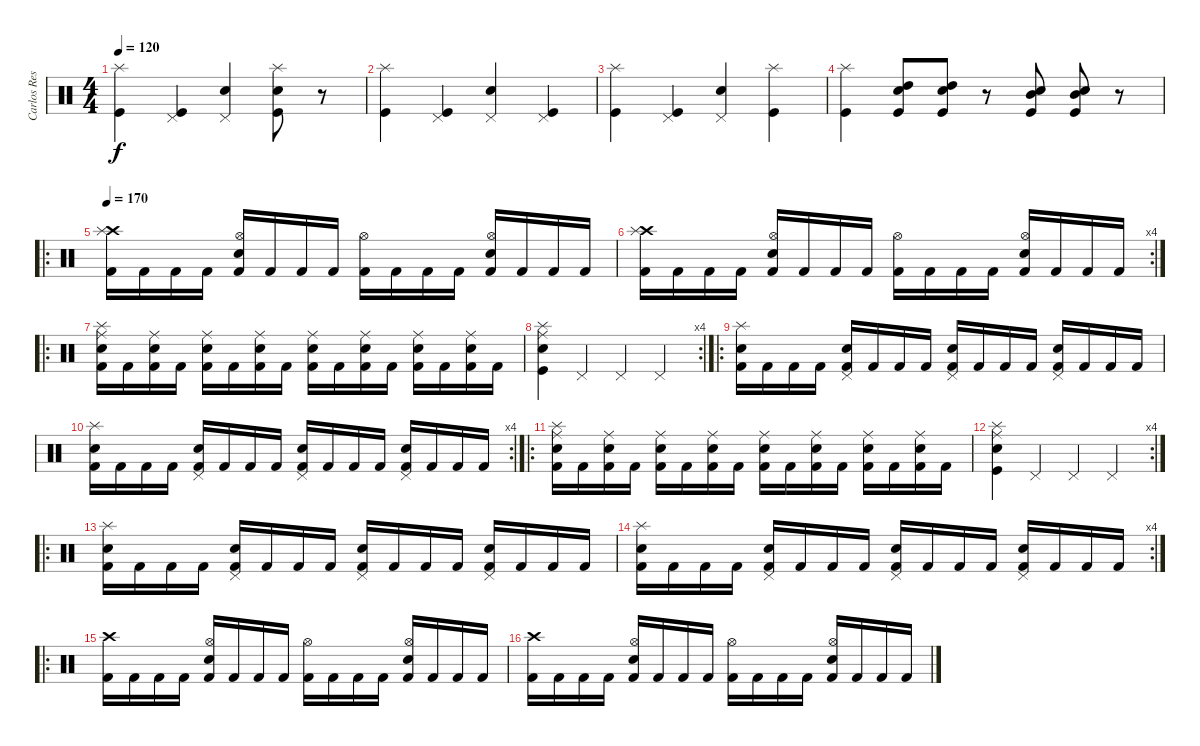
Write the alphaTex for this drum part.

\track ("Carlos Restrepo" "Carlos Res") {instrument percussion}
\staff {score}
\articulation defaults
\ts (4 4)
\tempo 120
\clef neutral
\ks c
("Splash (hit)" "Kick (hit)").4{dy f} ("Pedal Hi-Hat (hit)" "Kick (hit)").4 ("Pedal Hi-Hat (hit)" "Snare (hit) 2").4 ("Splash (hit)" "Kick (hit)" "Snare (hit) 2").8 r.8 |
("Splash (hit)" "Kick (hit)").4 ("Pedal Hi-Hat (hit)" "Kick (hit)").4 ("Pedal Hi-Hat (hit)" "Snare (hit) 2").4 ("Pedal Hi-Hat (hit)" "Kick (hit)").4 |
("Splash (hit)" "Kick (hit)").4 ("Pedal Hi-Hat (hit)" "Kick (hit)").4 ("Pedal Hi-Hat (hit)" "Snare (hit) 2").4 ("Splash (hit)" "Kick (hit)").4 |
("Splash (hit)" "Kick (hit)").4 ("Kick (hit)" "Snare (hit) 2" "High Tom (hit)").8 ("Kick (hit)" "Snare (hit) 2" "High Tom (hit)").8 r.8 ("Kick (hit)" "Snare (hit) 2" "Mid Tom (hit)").8 ("Kick (hit)" "Snare (hit) 2" "Mid Tom (hit)").8 r.8 |
\ro
\tempo 170
("Crash high (hit)" "Splash (hit)" "Kick (hit) 2").16 "Kick (hit) 2".16 "Kick (hit) 2".16 "Kick (hit) 2".16 ("Hi-Hat (open)" "Electric Snare (hit)" "Kick (hit) 2").16 "Kick (hit) 2".16 "Kick (hit) 2".16 "Kick (hit) 2".16 ("Hi-Hat (open)" "Kick (hit) 2").16 "Kick (hit) 2".16 "Kick (hit) 2".16 "Kick (hit) 2".16 ("Hi-Hat (open)" "Electric Snare (hit)" "Kick (hit) 2").16 "Kick (hit) 2".16 "Kick (hit) 2".16 "Kick (hit) 2".16 |
\rc 4
("Crash high (hit)" "Splash (hit)" "Kick (hit) 2").16 "Kick (hit) 2".16 "Kick (hit) 2".16 "Kick (hit) 2".16 ("Hi-Hat (open)" "Electric Snare (hit)" "Kick (hit) 2").16 "Kick (hit) 2".16 "Kick (hit) 2".16 "Kick (hit) 2".16 ("Hi-Hat (open)" "Kick (hit) 2").16 "Kick (hit) 2".16 "Kick (hit) 2".16 "Kick (hit) 2".16 ("Hi-Hat (open)" "Electric Snare (hit)" "Kick (hit) 2").16 "Kick (hit) 2".16 "Kick (hit) 2".16 "Kick (hit) 2".16 |
\ro
("Kick (hit) 2" "Snare (hit) 2" "Ride (middle)" "Splash (hit)").16 "Kick (hit) 2".16 ("Kick (hit) 2" "Snare (hit) 2" "Ride (middle)").16 "Kick (hit) 2".16 ("Kick (hit) 2" "Snare (hit) 2" "Ride (middle)").16 "Kick (hit) 2".16 ("Kick (hit) 2" "Snare (hit) 2" "Ride (middle)").16 "Kick (hit) 2".16 ("Kick (hit) 2" "Snare (hit) 2" "Ride (middle)").16 "Kick (hit) 2".16 ("Kick (hit) 2" "Snare (hit) 2" "Ride (middle)").16 "Kick (hit) 2".16 ("Kick (hit) 2" "Snare (hit) 2" "Ride (middle)").16 "Kick (hit) 2".16 ("Kick (hit) 2" "Snare (hit) 2" "Ride (middle)").16 "Kick (hit) 2".16 |
\rc 4
("Kick (hit)" "Snare (hit) 2" "Ride (middle)" "Splash (hit)").4 "Pedal Hi-Hat (hit)".4 "Pedal Hi-Hat (hit)".4 "Pedal Hi-Hat (hit)".4 |
\ro
("Splash (hit)" "Snare (hit) 2" "Kick (hit) 2").16 "Kick (hit) 2".16 "Kick (hit) 2".16 "Kick (hit) 2".16 ("Pedal Hi-Hat (hit)" "Snare (hit) 2" "Kick (hit) 2").16 "Kick (hit) 2".16 "Kick (hit) 2".16 "Kick (hit) 2".16 ("Pedal Hi-Hat (hit)" "Snare (hit) 2" "Kick (hit) 2").16 "Kick (hit) 2".16 "Kick (hit) 2".16 "Kick (hit) 2".16 ("Pedal Hi-Hat (hit)" "Snare (hit) 2" "Kick (hit) 2").16 "Kick (hit) 2".16 "Kick (hit) 2".16 "Kick (hit) 2".16 |
\rc 4
("Splash (hit)" "Snare (hit) 2" "Kick (hit) 2").16 "Kick (hit) 2".16 "Kick (hit) 2".16 "Kick (hit) 2".16 ("Pedal Hi-Hat (hit)" "Snare (hit) 2" "Kick (hit) 2").16 "Kick (hit) 2".16 "Kick (hit) 2".16 "Kick (hit) 2".16 ("Pedal Hi-Hat (hit)" "Snare (hit) 2" "Kick (hit) 2").16 "Kick (hit) 2".16 "Kick (hit) 2".16 "Kick (hit) 2".16 ("Pedal Hi-Hat (hit)" "Snare (hit) 2" "Kick (hit) 2").16 "Kick (hit) 2".16 "Kick (hit) 2".16 "Kick (hit) 2".16 |
\ro
("Kick (hit) 2" "Snare (hit) 2" "Ride (middle)" "Splash (hit)").16 "Kick (hit) 2".16 ("Kick (hit) 2" "Snare (hit) 2" "Ride (middle)").16 "Kick (hit) 2".16 ("Kick (hit) 2" "Snare (hit) 2" "Ride (middle)").16 "Kick (hit) 2".16 ("Kick (hit) 2" "Snare (hit) 2" "Ride (middle)").16 "Kick (hit) 2".16 ("Kick (hit) 2" "Snare (hit) 2" "Ride (middle)").16 "Kick (hit) 2".16 ("Kick (hit) 2" "Snare (hit) 2" "Ride (middle)").16 "Kick (hit) 2".16 ("Kick (hit) 2" "Snare (hit) 2" "Ride (middle)").16 "Kick (hit) 2".16 ("Kick (hit) 2" "Snare (hit) 2" "Ride (middle)").16 "Kick (hit) 2".16 |
\rc 4
("Kick (hit)" "Snare (hit) 2" "Ride (middle)" "Splash (hit)").4 "Pedal Hi-Hat (hit)".4 "Pedal Hi-Hat (hit)".4 "Pedal Hi-Hat (hit)".4 |
\ro
("Splash (hit)" "Snare (hit) 2" "Kick (hit) 2").16 "Kick (hit) 2".16 "Kick (hit) 2".16 "Kick (hit) 2".16 ("Pedal Hi-Hat (hit)" "Snare (hit) 2" "Kick (hit) 2").16 "Kick (hit) 2".16 "Kick (hit) 2".16 "Kick (hit) 2".16 ("Pedal Hi-Hat (hit)" "Snare (hit) 2" "Kick (hit) 2").16 "Kick (hit) 2".16 "Kick (hit) 2".16 "Kick (hit) 2".16 ("Pedal Hi-Hat (hit)" "Snare (hit) 2" "Kick (hit) 2").16 "Kick (hit) 2".16 "Kick (hit) 2".16 "Kick (hit) 2".16 |
\rc 4
("Splash (hit)" "Snare (hit) 2" "Kick (hit) 2").16 "Kick (hit) 2".16 "Kick (hit) 2".16 "Kick (hit) 2".16 ("Pedal Hi-Hat (hit)" "Snare (hit) 2" "Kick (hit) 2").16 "Kick (hit) 2".16 "Kick (hit) 2".16 "Kick (hit) 2".16 ("Pedal Hi-Hat (hit)" "Snare (hit) 2" "Kick (hit) 2").16 "Kick (hit) 2".16 "Kick (hit) 2".16 "Kick (hit) 2".16 ("Pedal Hi-Hat (hit)" "Snare (hit) 2" "Kick (hit) 2").16 "Kick (hit) 2".16 "Kick (hit) 2".16 "Kick (hit) 2".16 |
\ro
("Kick (hit) 2" "Crash high (hit)").16 "Kick (hit) 2".16 "Kick (hit) 2".16 "Kick (hit) 2".16 ("Kick (hit) 2" "Hi-Hat (open)" "Electric Snare (hit)").16 "Kick (hit) 2".16 "Kick (hit) 2".16 "Kick (hit) 2".16 ("Kick (hit) 2" "Hi-Hat (open)").16 "Kick (hit) 2".16 "Kick (hit) 2".16 "Kick (hit) 2".16 ("Kick (hit) 2" "Hi-Hat (open)" "Electric Snare (hit)").16 "Kick (hit) 2".16 "Kick (hit) 2".16 "Kick (hit) 2".16 |
("Kick (hit) 2" "Crash high (hit)").16 "Kick (hit) 2".16 "Kick (hit) 2".16 "Kick (hit) 2".16 ("Kick (hit) 2" "Hi-Hat (open)" "Electric Snare (hit)").16 "Kick (hit) 2".16 "Kick (hit) 2".16 "Kick (hit) 2".16 ("Kick (hit) 2" "Hi-Hat (open)").16 "Kick (hit) 2".16 "Kick (hit) 2".16 "Kick (hit) 2".16 ("Kick (hit) 2" "Hi-Hat (open)" "Electric Snare (hit)").16 "Kick (hit) 2".16 "Kick (hit) 2".16 "Kick (hit) 2".16
